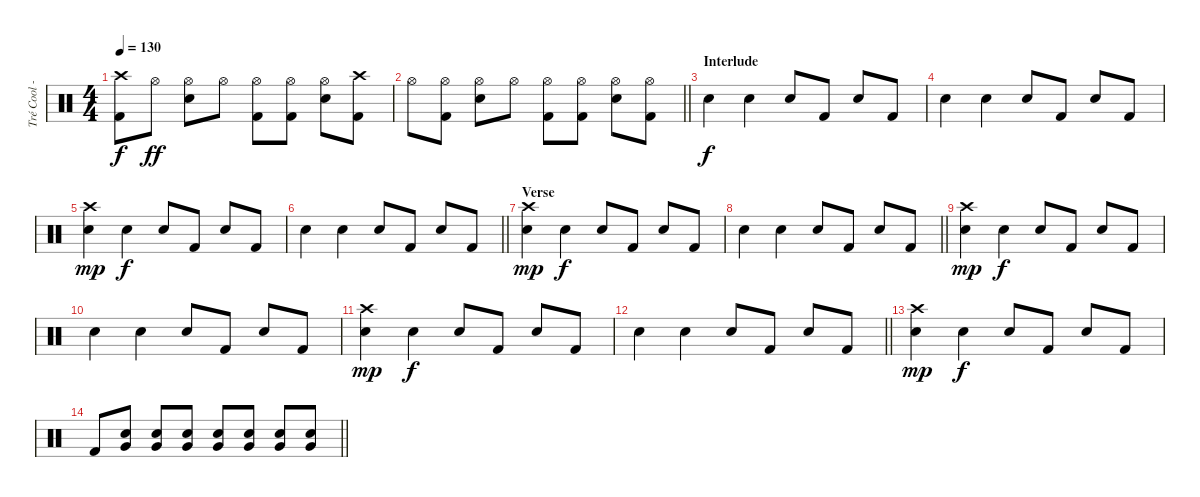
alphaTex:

\track ("Tré Cool - Drums" "Tré Cool -") {instrument percussion}
\staff {score}
\articulation defaults
\ts (4 4)
\tempo 130
\clef neutral
\ks c
("Crash high (hit)" "Kick (hit) 2").8{dy f} "Hi-Hat (open)".8{dy ff} ("Snare (hit) 2" "Hi-Hat (open)").8 "Hi-Hat (open)".8 ("Kick (hit) 2" "Hi-Hat (open)").8 ("Kick (hit) 2" "Hi-Hat (open)").8 ("Snare (hit) 2" "Hi-Hat (open)").8 ("Kick (hit) 2" "Crash high (hit)").8 |
\barLineRight lightlight "Hi-Hat (open)".8
("Kick (hit) 2" "Hi-Hat (open)").8 ("Snare (hit) 2" "Hi-Hat (open)").8 "Hi-Hat (open)".8 ("Kick (hit) 2" "Hi-Hat (open)").8 ("Kick (hit) 2" "Hi-Hat (open)").8 ("Snare (hit) 2" "Hi-Hat (open)").8 ("Kick (hit) 2" "Hi-Hat (open)").8 |
\section ("" "Interlude")
"Snare (hit) 2".4{dy f} "Snare (hit) 2".4 "Snare (hit) 2".8 "Kick (hit) 2".8 "Snare (hit) 2".8 "Kick (hit) 2".8 |
"Snare (hit) 2".4 "Snare (hit) 2".4 "Snare (hit) 2".8 "Kick (hit) 2".8 "Snare (hit) 2".8 "Kick (hit) 2".8 |
("Snare (hit) 2" "Crash high (hit)").4{dy mp} "Snare (hit) 2".4{dy f} "Snare (hit) 2".8 "Kick (hit) 2".8 "Snare (hit) 2".8 "Kick (hit) 2".8 |
\barLineRight lightlight "Snare (hit) 2".4 "Snare (hit) 2".4 "Snare (hit) 2".8 "Kick (hit) 2".8 "Snare (hit) 2".8 "Kick (hit) 2".8
|
\section ("" "Verse")
("Snare (hit) 2" "Crash high (hit)").4{dy mp} "Snare (hit) 2".4{dy f} "Snare (hit) 2".8 "Kick (hit) 2".8 "Snare (hit) 2".8 "Kick (hit) 2".8 |
\barLineRight lightlight "Snare (hit) 2".4 "Snare (hit) 2".4 "Snare (hit) 2".8 "Kick (hit) 2".8 "Snare (hit) 2".8 "Kick (hit) 2".8
|
("Snare (hit) 2" "Crash high (hit)").4{dy mp} "Snare (hit) 2".4{dy f} "Snare (hit) 2".8 "Kick (hit) 2".8 "Snare (hit) 2".8 "Kick (hit) 2".8 |
"Snare (hit) 2".4 "Snare (hit) 2".4 "Snare (hit) 2".8 "Kick (hit) 2".8 "Snare (hit) 2".8 "Kick (hit) 2".8 |
("Snare (hit) 2" "Crash high (hit)").4{dy mp} "Snare (hit) 2".4{dy f} "Snare (hit) 2".8 "Kick (hit) 2".8 "Snare (hit) 2".8 "Kick (hit) 2".8 |
\barLineRight lightlight "Snare (hit) 2".4 "Snare (hit) 2".4 "Snare (hit) 2".8 "Kick (hit) 2".8 "Snare (hit) 2".8 "Kick (hit) 2".8
|
("Snare (hit) 2" "Crash high (hit)").4{dy mp} "Snare (hit) 2".4{dy f} "Snare (hit) 2".8 "Kick (hit) 2".8 "Snare (hit) 2".8 "Kick (hit) 2".8 |
\barLineRight lightlight "Kick (hit) 2".8
("Snare (hit) 2" "Very Low Tom (hit)").8 ("Snare (hit) 2" "Very Low Tom (hit)").8 ("Snare (hit) 2" "Very Low Tom (hit)").8 ("Snare (hit) 2" "Very Low Tom (hit)").8 ("Snare (hit) 2" "Very Low Tom (hit)").8 ("Snare (hit) 2" "Very Low Tom (hit)").8 ("Snare (hit) 2" "Very Low Tom (hit)").8
